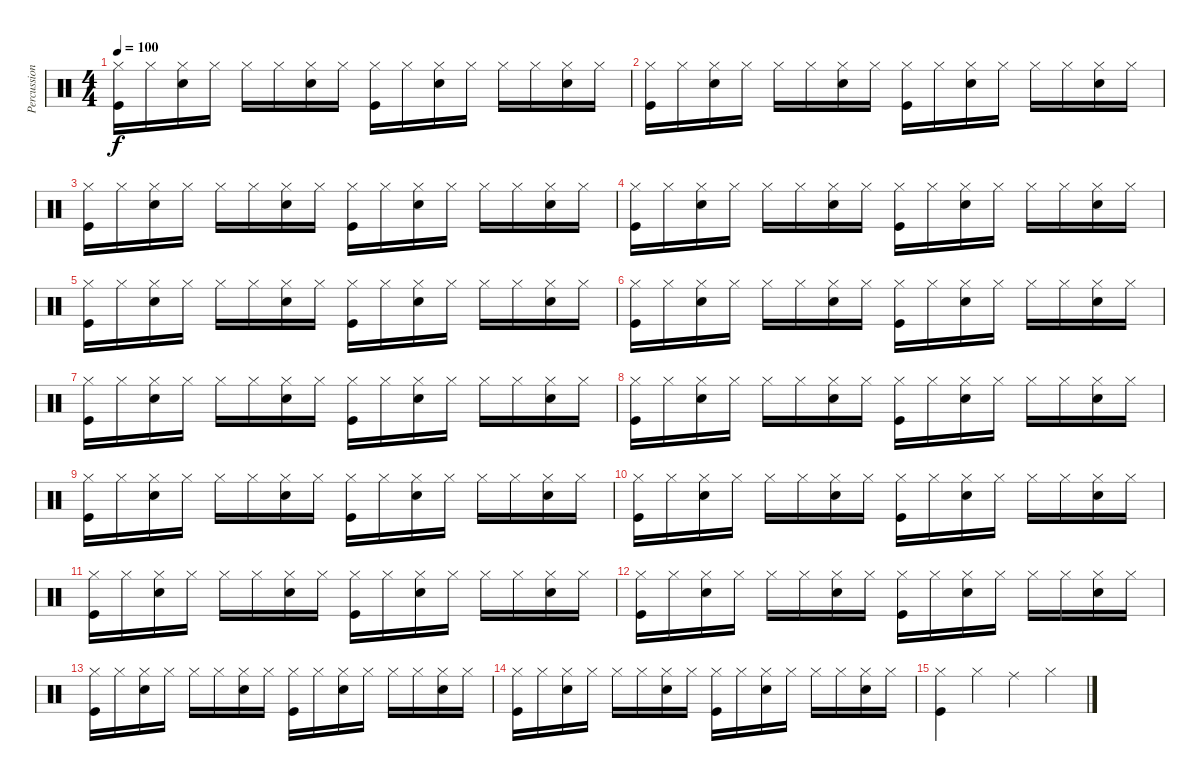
\track ("Percussions" "Percussion") {instrument percussion}
\staff {score}
\articulation defaults
\ts (4 4)
\tempo 100
\clef neutral
\ks c
("Hi-Hat (closed)" "Kick (hit)").16{dy f} "Hi-Hat (closed)".16 ("Hi-Hat (closed)" "Snare (hit) 2").16 "Hi-Hat (closed)".16 "Hi-Hat (closed)".16 "Hi-Hat (closed)".16 ("Hi-Hat (closed)" "Snare (hit) 2").16 "Hi-Hat (closed)".16 ("Hi-Hat (closed)" "Kick (hit)").16 "Hi-Hat (closed)".16 ("Hi-Hat (closed)" "Snare (hit) 2").16 "Hi-Hat (closed)".16 "Hi-Hat (closed)".16 "Hi-Hat (closed)".16 ("Hi-Hat (closed)" "Snare (hit) 2").16 "Hi-Hat (closed)".16 |
("Hi-Hat (closed)" "Kick (hit)").16 "Hi-Hat (closed)".16 ("Hi-Hat (closed)" "Snare (hit) 2").16 "Hi-Hat (closed)".16 "Hi-Hat (closed)".16 "Hi-Hat (closed)".16 ("Hi-Hat (closed)" "Snare (hit) 2").16 "Hi-Hat (closed)".16 ("Hi-Hat (closed)" "Kick (hit)").16 "Hi-Hat (closed)".16 ("Hi-Hat (closed)" "Snare (hit) 2").16 "Hi-Hat (closed)".16 "Hi-Hat (closed)".16 "Hi-Hat (closed)".16 ("Hi-Hat (closed)" "Snare (hit) 2").16 "Hi-Hat (closed)".16 |
("Hi-Hat (closed)" "Kick (hit)").16 "Hi-Hat (closed)".16 ("Hi-Hat (closed)" "Snare (hit) 2").16 "Hi-Hat (closed)".16 "Hi-Hat (closed)".16 "Hi-Hat (closed)".16 ("Hi-Hat (closed)" "Snare (hit) 2").16 "Hi-Hat (closed)".16 ("Hi-Hat (closed)" "Kick (hit)").16 "Hi-Hat (closed)".16 ("Hi-Hat (closed)" "Snare (hit) 2").16 "Hi-Hat (closed)".16 "Hi-Hat (closed)".16 "Hi-Hat (closed)".16 ("Hi-Hat (closed)" "Snare (hit) 2").16 "Hi-Hat (closed)".16 |
("Hi-Hat (closed)" "Kick (hit)").16 "Hi-Hat (closed)".16 ("Hi-Hat (closed)" "Snare (hit) 2").16 "Hi-Hat (closed)".16 "Hi-Hat (closed)".16 "Hi-Hat (closed)".16 ("Hi-Hat (closed)" "Snare (hit) 2").16 "Hi-Hat (closed)".16 ("Hi-Hat (closed)" "Kick (hit)").16 "Hi-Hat (closed)".16 ("Hi-Hat (closed)" "Snare (hit) 2").16 "Hi-Hat (closed)".16 "Hi-Hat (closed)".16 "Hi-Hat (closed)".16 ("Hi-Hat (closed)" "Snare (hit) 2").16 "Hi-Hat (closed)".16 |
("Hi-Hat (closed)" "Kick (hit)").16 "Hi-Hat (closed)".16 ("Hi-Hat (closed)" "Snare (hit) 2").16 "Hi-Hat (closed)".16 "Hi-Hat (closed)".16 "Hi-Hat (closed)".16 ("Hi-Hat (closed)" "Snare (hit) 2").16 "Hi-Hat (closed)".16 ("Hi-Hat (closed)" "Kick (hit)").16 "Hi-Hat (closed)".16 ("Hi-Hat (closed)" "Snare (hit) 2").16 "Hi-Hat (closed)".16 "Hi-Hat (closed)".16 "Hi-Hat (closed)".16 ("Hi-Hat (closed)" "Snare (hit) 2").16 "Hi-Hat (closed)".16 |
("Hi-Hat (closed)" "Kick (hit)").16 "Hi-Hat (closed)".16 ("Hi-Hat (closed)" "Snare (hit) 2").16 "Hi-Hat (closed)".16 "Hi-Hat (closed)".16 "Hi-Hat (closed)".16 ("Hi-Hat (closed)" "Snare (hit) 2").16 "Hi-Hat (closed)".16 ("Hi-Hat (closed)" "Kick (hit)").16 "Hi-Hat (closed)".16 ("Hi-Hat (closed)" "Snare (hit) 2").16 "Hi-Hat (closed)".16 "Hi-Hat (closed)".16 "Hi-Hat (closed)".16 ("Hi-Hat (closed)" "Snare (hit) 2").16 "Hi-Hat (closed)".16 |
("Hi-Hat (closed)" "Kick (hit)").16 "Hi-Hat (closed)".16 ("Hi-Hat (closed)" "Snare (hit) 2").16 "Hi-Hat (closed)".16 "Hi-Hat (closed)".16 "Hi-Hat (closed)".16 ("Hi-Hat (closed)" "Snare (hit) 2").16 "Hi-Hat (closed)".16 ("Hi-Hat (closed)" "Kick (hit)").16 "Hi-Hat (closed)".16 ("Hi-Hat (closed)" "Snare (hit) 2").16 "Hi-Hat (closed)".16 "Hi-Hat (closed)".16 "Hi-Hat (closed)".16 ("Hi-Hat (closed)" "Snare (hit) 2").16 "Hi-Hat (closed)".16 |
("Hi-Hat (closed)" "Kick (hit)").16 "Hi-Hat (closed)".16 ("Hi-Hat (closed)" "Snare (hit) 2").16 "Hi-Hat (closed)".16 "Hi-Hat (closed)".16 "Hi-Hat (closed)".16 ("Hi-Hat (closed)" "Snare (hit) 2").16 "Hi-Hat (closed)".16 ("Hi-Hat (closed)" "Kick (hit)").16 "Hi-Hat (closed)".16 ("Hi-Hat (closed)" "Snare (hit) 2").16 "Hi-Hat (closed)".16 "Hi-Hat (closed)".16 "Hi-Hat (closed)".16 ("Hi-Hat (closed)" "Snare (hit) 2").16 "Hi-Hat (closed)".16 |
("Hi-Hat (closed)" "Kick (hit)").16 "Hi-Hat (closed)".16 ("Hi-Hat (closed)" "Snare (hit) 2").16 "Hi-Hat (closed)".16 "Hi-Hat (closed)".16 "Hi-Hat (closed)".16 ("Hi-Hat (closed)" "Snare (hit) 2").16 "Hi-Hat (closed)".16 ("Hi-Hat (closed)" "Kick (hit)").16 "Hi-Hat (closed)".16 ("Hi-Hat (closed)" "Snare (hit) 2").16 "Hi-Hat (closed)".16 "Hi-Hat (closed)".16 "Hi-Hat (closed)".16 ("Hi-Hat (closed)" "Snare (hit) 2").16 "Hi-Hat (closed)".16 |
("Hi-Hat (closed)" "Kick (hit)").16 "Hi-Hat (closed)".16 ("Hi-Hat (closed)" "Snare (hit) 2").16 "Hi-Hat (closed)".16 "Hi-Hat (closed)".16 "Hi-Hat (closed)".16 ("Hi-Hat (closed)" "Snare (hit) 2").16 "Hi-Hat (closed)".16 ("Hi-Hat (closed)" "Kick (hit)").16 "Hi-Hat (closed)".16 ("Hi-Hat (closed)" "Snare (hit) 2").16 "Hi-Hat (closed)".16 "Hi-Hat (closed)".16 "Hi-Hat (closed)".16 ("Hi-Hat (closed)" "Snare (hit) 2").16 "Hi-Hat (closed)".16 |
("Hi-Hat (closed)" "Kick (hit)").16 "Hi-Hat (closed)".16 ("Hi-Hat (closed)" "Snare (hit) 2").16 "Hi-Hat (closed)".16 "Hi-Hat (closed)".16 "Hi-Hat (closed)".16 ("Hi-Hat (closed)" "Snare (hit) 2").16 "Hi-Hat (closed)".16 ("Hi-Hat (closed)" "Kick (hit)").16 "Hi-Hat (closed)".16 ("Hi-Hat (closed)" "Snare (hit) 2").16 "Hi-Hat (closed)".16 "Hi-Hat (closed)".16 "Hi-Hat (closed)".16 ("Hi-Hat (closed)" "Snare (hit) 2").16 "Hi-Hat (closed)".16 |
("Hi-Hat (closed)" "Kick (hit)").16 "Hi-Hat (closed)".16 ("Hi-Hat (closed)" "Snare (hit) 2").16 "Hi-Hat (closed)".16 "Hi-Hat (closed)".16 "Hi-Hat (closed)".16 ("Hi-Hat (closed)" "Snare (hit) 2").16 "Hi-Hat (closed)".16 ("Hi-Hat (closed)" "Kick (hit)").16 "Hi-Hat (closed)".16 ("Hi-Hat (closed)" "Snare (hit) 2").16 "Hi-Hat (closed)".16 "Hi-Hat (closed)".16 "Hi-Hat (closed)".16 ("Hi-Hat (closed)" "Snare (hit) 2").16 "Hi-Hat (closed)".16 |
("Hi-Hat (closed)" "Kick (hit)").16 "Hi-Hat (closed)".16 ("Hi-Hat (closed)" "Snare (hit) 2").16 "Hi-Hat (closed)".16 "Hi-Hat (closed)".16 "Hi-Hat (closed)".16 ("Hi-Hat (closed)" "Snare (hit) 2").16 "Hi-Hat (closed)".16 ("Hi-Hat (closed)" "Kick (hit)").16 "Hi-Hat (closed)".16 ("Hi-Hat (closed)" "Snare (hit) 2").16 "Hi-Hat (closed)".16 "Hi-Hat (closed)".16 "Hi-Hat (closed)".16 ("Hi-Hat (closed)" "Snare (hit) 2").16 "Hi-Hat (closed)".16 |
("Hi-Hat (closed)" "Kick (hit)").16 "Hi-Hat (closed)".16 ("Hi-Hat (closed)" "Snare (hit) 2").16 "Hi-Hat (closed)".16 "Hi-Hat (closed)".16 "Hi-Hat (closed)".16 ("Hi-Hat (closed)" "Snare (hit) 2").16 "Hi-Hat (closed)".16 ("Hi-Hat (closed)" "Kick (hit)").16 "Hi-Hat (closed)".16 ("Hi-Hat (closed)" "Snare (hit) 2").16 "Hi-Hat (closed)".16 "Hi-Hat (closed)".16 "Hi-Hat (closed)".16 ("Hi-Hat (closed)" "Snare (hit) 2").16 "Hi-Hat (closed)".16 |
("Hi-Hat (closed)" "Kick (hit)").4 "Hi-Hat (closed)".4 "Ride (middle)".4 "Hi-Hat (closed)".4
